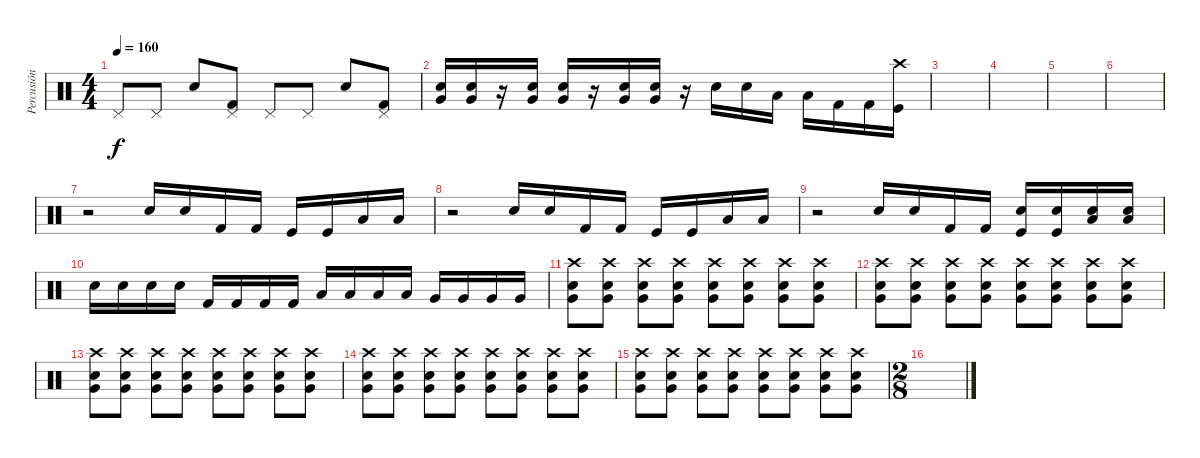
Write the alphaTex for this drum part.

\track ("Percusión" "Percusión") {instrument percussion}
\staff {score}
\articulation defaults
\ts (4 4)
\tempo 160
\clef neutral
\ks c "Pedal Hi-Hat (hit)".8{dy f} "Pedal Hi-Hat (hit)".8 "Snare (hit) 2".8
("Pedal Hi-Hat (hit)" "Kick (hit) 2").8 "Pedal Hi-Hat (hit)".8 "Pedal Hi-Hat (hit)".8 "Snare (hit) 2".8 ("Pedal Hi-Hat (hit)" "Kick (hit) 2").8 |
("Very Low Tom (hit)" "Snare (hit) 2").16 ("Very Low Tom (hit)" "Snare (hit) 2").16 r.16 ("Very Low Tom (hit)" "Snare (hit) 2").16 ("Very Low Tom (hit)" "Snare (hit) 2").16 r.16 ("Very Low Tom (hit)" "Snare (hit) 2").16 ("Very Low Tom (hit)" "Snare (hit) 2").16 r.16 "Snare (hit) 2".16 "Snare (hit) 2".16 "Low Floor Tom (hit)".16 "Low Floor Tom (hit)".16 "Kick (hit) 2".16 "Kick (hit) 2".16 ("Crash high (hit)" "Kick (hit)").16 |
|
|
|
|
r.2 "Snare (hit) 2".16 "Snare (hit) 2".16 "Kick (hit) 2".16 "Kick (hit) 2".16 "Kick (hit)".16 "Kick (hit)".16 "Low Floor Tom (hit)".16 "Low Floor Tom (hit)".16 |
r.2 "Snare (hit) 2".16 "Snare (hit) 2".16 "Kick (hit) 2".16 "Kick (hit) 2".16 "Kick (hit)".16 "Kick (hit)".16 "Low Floor Tom (hit)".16 "Low Floor Tom (hit)".16 |
r.2 "Snare (hit) 2".16 "Snare (hit) 2".16 "Kick (hit) 2".16 "Kick (hit) 2".16 ("Kick (hit)" "Snare (hit) 2").16 ("Kick (hit)" "Snare (hit) 2").16 ("Snare (hit) 2" "Low Floor Tom (hit)").16 ("Snare (hit) 2" "Low Floor Tom (hit)").16 |
"Snare (hit) 2".16 "Snare (hit) 2".16 "Snare (hit) 2".16 "Snare (hit) 2".16 "Kick (hit) 2".16 "Kick (hit) 2".16 "Kick (hit) 2".16 "Kick (hit) 2".16 "Low Floor Tom (hit)".16 "Low Floor Tom (hit)".16 "Low Floor Tom (hit)".16 "Low Floor Tom (hit)".16 "Very Low Tom (hit)".16 "Very Low Tom (hit)".16 "Very Low Tom (hit)".16 "Very Low Tom (hit)".16 |
("Crash high (hit)" "Snare (hit) 2" "Very Low Tom (hit)").8 ("Crash high (hit)" "Snare (hit) 2" "Very Low Tom (hit)").8 ("Crash high (hit)" "Snare (hit) 2" "Very Low Tom (hit)").8 ("Crash high (hit)" "Snare (hit) 2" "Very Low Tom (hit)").8 ("Crash high (hit)" "Snare (hit) 2" "Very Low Tom (hit)").8 ("Crash high (hit)" "Snare (hit) 2" "Very Low Tom (hit)").8 ("Crash high (hit)" "Snare (hit) 2" "Very Low Tom (hit)").8 ("Crash high (hit)" "Snare (hit) 2" "Very Low Tom (hit)").8 |
("Crash high (hit)" "Snare (hit) 2" "Very Low Tom (hit)").8 ("Crash high (hit)" "Snare (hit) 2" "Very Low Tom (hit)").8 ("Crash high (hit)" "Snare (hit) 2" "Very Low Tom (hit)").8 ("Crash high (hit)" "Snare (hit) 2" "Very Low Tom (hit)").8 ("Crash high (hit)" "Snare (hit) 2" "Very Low Tom (hit)").8 ("Crash high (hit)" "Snare (hit) 2" "Very Low Tom (hit)").8 ("Crash high (hit)" "Snare (hit) 2" "Very Low Tom (hit)").8 ("Crash high (hit)" "Snare (hit) 2" "Very Low Tom (hit)").8 |
("Crash high (hit)" "Snare (hit) 2" "Very Low Tom (hit)").8 ("Crash high (hit)" "Snare (hit) 2" "Very Low Tom (hit)").8 ("Crash high (hit)" "Snare (hit) 2" "Very Low Tom (hit)").8 ("Crash high (hit)" "Snare (hit) 2" "Very Low Tom (hit)").8 ("Crash high (hit)" "Snare (hit) 2" "Very Low Tom (hit)").8 ("Crash high (hit)" "Snare (hit) 2" "Very Low Tom (hit)").8 ("Crash high (hit)" "Snare (hit) 2" "Very Low Tom (hit)").8 ("Crash high (hit)" "Snare (hit) 2" "Very Low Tom (hit)").8 |
("Crash high (hit)" "Snare (hit) 2" "Very Low Tom (hit)").8 ("Crash high (hit)" "Snare (hit) 2" "Very Low Tom (hit)").8 ("Crash high (hit)" "Snare (hit) 2" "Very Low Tom (hit)").8 ("Crash high (hit)" "Snare (hit) 2" "Very Low Tom (hit)").8 ("Crash high (hit)" "Snare (hit) 2" "Very Low Tom (hit)").8 ("Crash high (hit)" "Snare (hit) 2" "Very Low Tom (hit)").8 ("Crash high (hit)" "Snare (hit) 2" "Very Low Tom (hit)").8 ("Crash high (hit)" "Snare (hit) 2" "Very Low Tom (hit)").8 |
("Crash high (hit)" "Snare (hit) 2" "Very Low Tom (hit)").8 ("Crash high (hit)" "Snare (hit) 2" "Very Low Tom (hit)").8 ("Crash high (hit)" "Snare (hit) 2" "Very Low Tom (hit)").8 ("Crash high (hit)" "Snare (hit) 2" "Very Low Tom (hit)").8 ("Crash high (hit)" "Snare (hit) 2" "Very Low Tom (hit)").8 ("Crash high (hit)" "Snare (hit) 2" "Very Low Tom (hit)").8 ("Crash high (hit)" "Snare (hit) 2" "Very Low Tom (hit)").8 ("Crash high (hit)" "Snare (hit) 2" "Very Low Tom (hit)").8 |
\ts (2 8)
